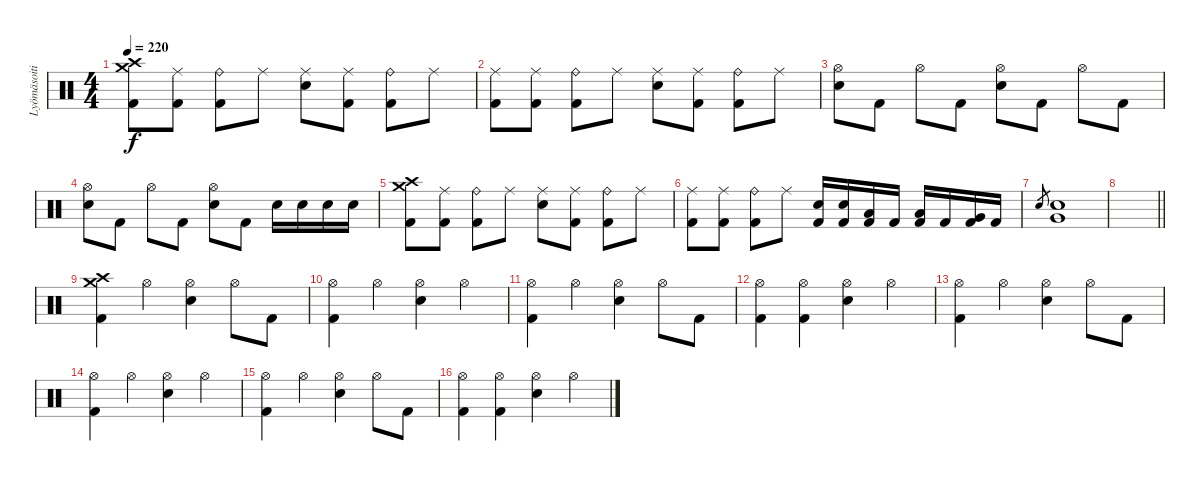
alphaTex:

\track ("Lyömäsoitin" "Lyömäsoiti") {instrument percussion}
\staff {score}
\articulation defaults
\ts (4 4)
\tempo 220
\clef neutral
\ks c
("Crash medium (hit)" "Crash high (hit)" "Kick (hit) 2").8{dy f} ("Ride (middle)" "Kick (hit) 2").8 ("Ride (bell)" "Kick (hit) 2").8 "Ride (middle)".8 ("Ride (middle)" "Electric Snare (hit)").8 ("Ride (middle)" "Kick (hit) 2").8 ("Ride (bell)" "Kick (hit) 2").8 "Ride (middle)".8 |
("Ride (middle)" "Kick (hit) 2").8 ("Ride (middle)" "Kick (hit) 2").8 ("Ride (bell)" "Kick (hit) 2").8 "Ride (middle)".8 ("Ride (middle)" "Electric Snare (hit)").8 ("Ride (middle)" "Kick (hit) 2").8 ("Ride (bell)" "Kick (hit) 2").8 "Ride (middle)".8 |
("Hi-Hat (open)" "Electric Snare (hit)").8 "Kick (hit) 2".8 "Hi-Hat (open)".8 "Kick (hit) 2".8 ("Hi-Hat (open)" "Electric Snare (hit)").8 "Kick (hit) 2".8 "Hi-Hat (open)".8 "Kick (hit) 2".8 |
("Hi-Hat (open)" "Electric Snare (hit)").8 "Kick (hit) 2".8 "Hi-Hat (open)".8 "Kick (hit) 2".8 ("Hi-Hat (open)" "Electric Snare (hit)").8 "Kick (hit) 2".8 "Electric Snare (hit)".16 "Electric Snare (hit)".16 "Electric Snare (hit)".16 "Electric Snare (hit)".16 |
("Crash medium (hit)" "Crash high (hit)" "Kick (hit) 2").8 ("Ride (middle)" "Kick (hit) 2").8 ("Ride (bell)" "Kick (hit) 2").8 "Ride (middle)".8 ("Ride (middle)" "Electric Snare (hit)").8 ("Ride (middle)" "Kick (hit) 2").8 ("Ride (bell)" "Kick (hit) 2").8 "Ride (middle)".8 |
("Ride (middle)" "Kick (hit) 2").8 ("Ride (middle)" "Kick (hit) 2").8 ("Ride (bell)" "Kick (hit) 2").8 "Ride (middle)".8 ("Electric Snare (hit)" "Kick (hit) 2").16 ("Electric Snare (hit)" "Kick (hit) 2").16 ("Low Tom (hit)" "Kick (hit) 2").16 "Kick (hit) 2".16 ("Low Tom (hit)" "Kick (hit) 2").16 "Kick (hit) 2".16 ("Very Low Tom (hit)" "Kick (hit) 2").16 "Kick (hit) 2".16 |
"Electric Snare (hit)".8{gr} ("Very Low Tom (hit)" "Electric Snare (hit)").1 |
\barLineRight lightlight
|
\section ("" "")
("Crash medium (hit)" "Crash high (hit)" "Kick (hit) 2").4 "Hi-Hat (open)".4 ("Hi-Hat (open)" "Electric Snare (hit)").4 "Hi-Hat (open)".8 "Kick (hit) 2".8 |
("Hi-Hat (open)" "Kick (hit) 2").4 "Hi-Hat (open)".4 ("Hi-Hat (open)" "Electric Snare (hit)").4 "Hi-Hat (open)".4 |
("Hi-Hat (open)" "Kick (hit) 2").4 "Hi-Hat (open)".4 ("Hi-Hat (open)" "Electric Snare (hit)").4 "Hi-Hat (open)".8 "Kick (hit) 2".8 |
("Hi-Hat (open)" "Kick (hit) 2").4 ("Hi-Hat (open)" "Kick (hit) 2").4 ("Hi-Hat (open)" "Electric Snare (hit)").4 "Hi-Hat (open)".4 |
("Hi-Hat (open)" "Kick (hit) 2").4 "Hi-Hat (open)".4 ("Hi-Hat (open)" "Electric Snare (hit)").4 "Hi-Hat (open)".8 "Kick (hit) 2".8 |
("Hi-Hat (open)" "Kick (hit) 2").4 "Hi-Hat (open)".4 ("Hi-Hat (open)" "Electric Snare (hit)").4 "Hi-Hat (open)".4 |
("Hi-Hat (open)" "Kick (hit) 2").4 "Hi-Hat (open)".4 ("Hi-Hat (open)" "Electric Snare (hit)").4 "Hi-Hat (open)".8 "Kick (hit) 2".8 |
("Hi-Hat (open)" "Kick (hit) 2").4 ("Hi-Hat (open)" "Kick (hit) 2").4 ("Hi-Hat (open)" "Electric Snare (hit)").4 "Hi-Hat (open)".4
